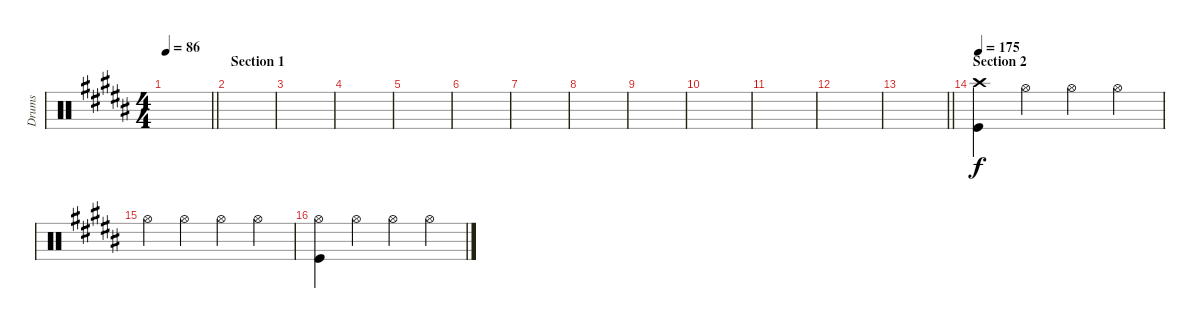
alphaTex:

\track ("Drums" "Drums") {instrument percussion}
\staff {score}
\articulation defaults
\ts (4 4)
\tempo 86
\clef neutral
\barLineRight lightlight
\ks b
|
\section ("" "Section 1")
|
|
|
|
|
|
|
|
|
|
|
\barLineRight lightlight
|
\section ("" "Section 2")
\tempo 175
("Crash high (hit)" "Kick (hit)").4 "Hi-Hat (open)".4 "Hi-Hat (open)".4 "Hi-Hat (open)".4 |
"Hi-Hat (open)".4 "Hi-Hat (open)".4 "Hi-Hat (open)".4 "Hi-Hat (open)".4 |
("Hi-Hat (open)" "Kick (hit)").4 "Hi-Hat (open)".4 "Hi-Hat (open)".4 "Hi-Hat (open)".4
